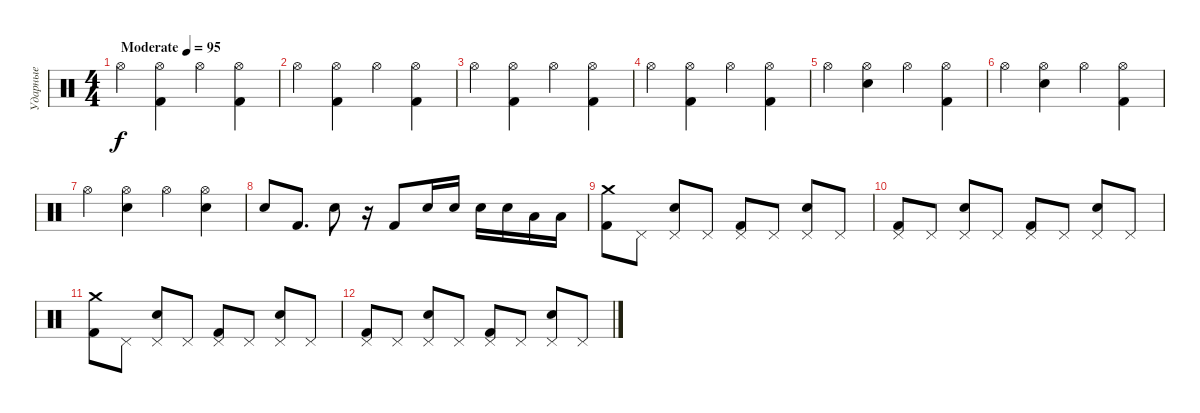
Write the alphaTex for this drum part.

\track ("Ударные" "Ударные") {instrument percussion}
\staff {score}
\articulation defaults
\ts (4 4)
\tempo (95 "Moderate")
\clef neutral
\ks c "Hi-Hat (open)".4{dy f}
("Kick (hit) 2" "Hi-Hat (open)").4 "Hi-Hat (open)".4 ("Kick (hit) 2" "Hi-Hat (open)").4 |
"Hi-Hat (open)".4 ("Kick (hit) 2" "Hi-Hat (open)").4 "Hi-Hat (open)".4 ("Kick (hit) 2" "Hi-Hat (open)").4 |
"Hi-Hat (open)".4 ("Kick (hit) 2" "Hi-Hat (open)").4 "Hi-Hat (open)".4 ("Kick (hit) 2" "Hi-Hat (open)").4 |
"Hi-Hat (open)".4 ("Kick (hit) 2" "Hi-Hat (open)").4 "Hi-Hat (open)".4 ("Kick (hit) 2" "Hi-Hat (open)").4 |
"Hi-Hat (open)".4 ("Hi-Hat (open)" "Electric Snare (hit)").4 "Hi-Hat (open)".4 ("Kick (hit) 2" "Hi-Hat (open)").4 |
"Hi-Hat (open)".4 ("Electric Snare (hit)" "Hi-Hat (open)").4 "Hi-Hat (open)".4 ("Kick (hit) 2" "Hi-Hat (open)").4 |
"Hi-Hat (open)".4 ("Electric Snare (hit)" "Hi-Hat (open)").4 "Hi-Hat (open)".4 ("Hi-Hat (open)" "Electric Snare (hit)").4 |
"Electric Snare (hit)".8 "Kick (hit) 2".8{d} "Electric Snare (hit)".8 r.16 "Kick (hit) 2".8 "Electric Snare (hit)".16 "Electric Snare (hit)".16 "Electric Snare (hit)".16 "Electric Snare (hit)".16 "Low Tom (hit)".16 "Low Tom (hit)".16 |
("Kick (hit) 2" "Crash medium (hit)").8 "Pedal Hi-Hat (hit)".8 ("Electric Snare (hit)" "Pedal Hi-Hat (hit)").8 "Pedal Hi-Hat (hit)".8 ("Kick (hit) 2" "Pedal Hi-Hat (hit)").8 "Pedal Hi-Hat (hit)".8 ("Electric Snare (hit)" "Pedal Hi-Hat (hit)").8 "Pedal Hi-Hat (hit)".8 |
("Kick (hit) 2" "Pedal Hi-Hat (hit)").8 "Pedal Hi-Hat (hit)".8 ("Electric Snare (hit)" "Pedal Hi-Hat (hit)").8 "Pedal Hi-Hat (hit)".8 ("Kick (hit) 2" "Pedal Hi-Hat (hit)").8 "Pedal Hi-Hat (hit)".8 ("Electric Snare (hit)" "Pedal Hi-Hat (hit)").8 "Pedal Hi-Hat (hit)".8 |
("Kick (hit) 2" "Crash medium (hit)").8 "Pedal Hi-Hat (hit)".8 ("Electric Snare (hit)" "Pedal Hi-Hat (hit)").8 "Pedal Hi-Hat (hit)".8 ("Kick (hit) 2" "Pedal Hi-Hat (hit)").8 "Pedal Hi-Hat (hit)".8 ("Electric Snare (hit)" "Pedal Hi-Hat (hit)").8 "Pedal Hi-Hat (hit)".8 |
("Kick (hit) 2" "Pedal Hi-Hat (hit)").8 "Pedal Hi-Hat (hit)".8 ("Electric Snare (hit)" "Pedal Hi-Hat (hit)").8 "Pedal Hi-Hat (hit)".8 ("Kick (hit) 2" "Pedal Hi-Hat (hit)").8 "Pedal Hi-Hat (hit)".8 ("Electric Snare (hit)" "Pedal Hi-Hat (hit)").8 "Pedal Hi-Hat (hit)".8
